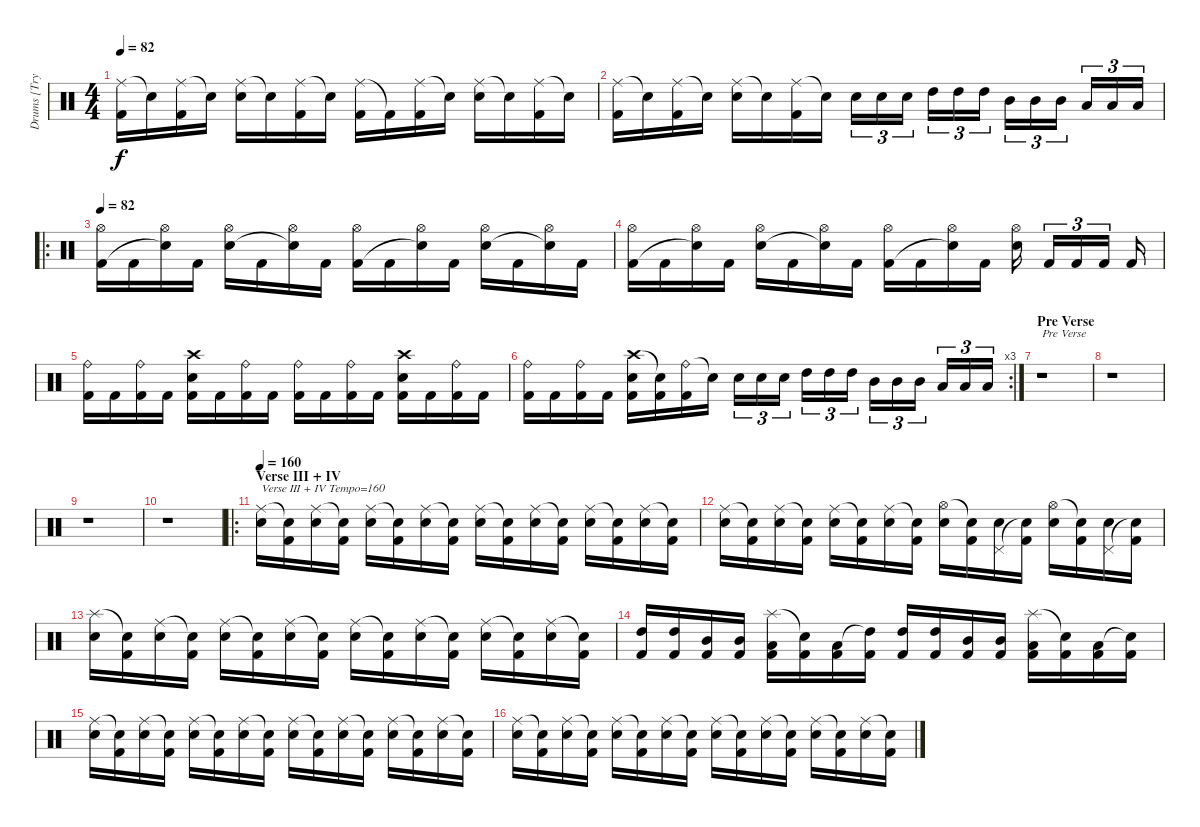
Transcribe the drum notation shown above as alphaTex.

\track ("Drums [Trym]" "Drums [Try") {instrument percussion}
\staff {score}
\articulation defaults
\ts (4 4)
\tempo 82
\clef neutral
\ks c
("Ride (middle)" "Kick (hit) 2").16{dy f} "Snare (hit)"{t}.16 ("Ride (middle)" "Kick (hit) 2").16 "Snare (hit)"{t}.16 ("Ride (middle)" "Electric Snare (hit)").16 "Snare (hit)"{t}.16 ("Ride (middle)" "Kick (hit) 2").16 "Snare (hit)"{t}.16 ("Ride (middle)" "Kick (hit) 2").16 "Kick (hit) 2"{t}.16 ("Ride (middle)" "Kick (hit) 2").16 "Snare (hit)"{t}.16 ("Ride (middle)" "Electric Snare (hit)").16 "Snare (hit)"{t}.16 ("Ride (middle)" "Kick (hit) 2").16 "Snare (hit)"{t}.16 |
("Ride (middle)" "Kick (hit) 2").16 "Snare (hit)"{t}.16 ("Ride (middle)" "Kick (hit) 2").16 "Snare (hit)"{t}.16 ("Ride (middle)" "Electric Snare (hit)").16 "Snare (hit)"{t}.16 ("Ride (middle)" "Kick (hit) 2").16 "Snare (hit)"{t}.16 "Electric Snare (hit)".16{tu (3 2)} "Electric Snare (hit)".16{tu (3 2)} "Electric Snare (hit)".16{tu (3 2)} "High Tom (hit)".16{tu (3 2)} "High Tom (hit)".16{tu (3 2)} "High Tom (hit)".16{tu (3 2)} "Mid Tom (hit)".16{tu (3 2)} "Mid Tom (hit)".16{tu (3 2)} "Mid Tom (hit)".16{tu (3 2)} "Low Tom (hit)".16{tu (3 2)} "Low Tom (hit)".16{tu (3 2)} "Low Tom (hit)".16{tu (3 2)} |
\ro
\tempo 82
("Hi-Hat (open)" "Kick (hit) 2").16 "Kick (hit) 2".16 ("Hi-Hat (open)" "Snare (hit)"{t}).16 "Kick (hit) 2".16 ("Hi-Hat (open)" "Electric Snare (hit)").16 "Kick (hit) 2".16 ("Hi-Hat (open)" "Snare (hit)"{t}).16 "Kick (hit) 2".16 ("Hi-Hat (open)" "Kick (hit) 2").16 "Kick (hit) 2".16 ("Hi-Hat (open)" "Snare (hit)"{t}).16 "Kick (hit) 2".16 ("Hi-Hat (open)" "Electric Snare (hit)").16 "Kick (hit) 2".16 ("Hi-Hat (open)" "Snare (hit)"{t}).16 "Kick (hit) 2".16 |
("Hi-Hat (open)" "Kick (hit) 2").16 "Kick (hit) 2".16 ("Hi-Hat (open)" "Snare (hit)"{t}).16 "Kick (hit) 2".16 ("Hi-Hat (open)" "Electric Snare (hit)").16 "Kick (hit) 2".16 ("Hi-Hat (open)" "Snare (hit)"{t}).16 "Kick (hit) 2".16 ("Hi-Hat (open)" "Kick (hit) 2").16 "Kick (hit) 2".16 ("Hi-Hat (open)" "Snare (hit)"{t}).16 "Kick (hit) 2".16 ("Hi-Hat (open)" "Electric Snare (hit)").16 "Kick (hit) 2".16{tu (3 2)} "Kick (hit) 2".16{tu (3 2)} "Kick (hit) 2".16{tu (3 2)} "Kick (hit) 2".16 |
("Ride (bell)" "Kick (hit) 2").16 "Kick (hit) 2".16 ("Ride (bell)" "Kick (hit) 2").16 "Kick (hit) 2".16 ("Crash high (hit)" "Electric Snare (hit)" "Kick (hit) 2").16 "Kick (hit) 2".16 ("Ride (bell)" "Kick (hit) 2").16 "Kick (hit) 2".16 ("Ride (bell)" "Kick (hit) 2").16 "Kick (hit) 2".16 ("Ride (bell)" "Kick (hit) 2").16 "Kick (hit) 2".16 ("Crash high (hit)" "Electric Snare (hit)" "Kick (hit) 2").16 "Kick (hit) 2".16 ("Ride (bell)" "Kick (hit) 2").16 "Kick (hit) 2".16 |
\rc 3
("Ride (bell)" "Kick (hit) 2").16 "Kick (hit) 2".16 ("Ride (bell)" "Kick (hit) 2").16 "Kick (hit) 2".16 ("Crash high (hit)" "Electric Snare (hit)" "Kick (hit) 2").16 ("Snare (hit)"{t} "Kick (hit) 2").16 ("Ride (bell)" "Kick (hit) 2").16 "Snare (hit)"{t}.16 "Electric Snare (hit)".16{tu (3 2)} "Electric Snare (hit)".16{tu (3 2)} "Electric Snare (hit)".16{tu (3 2)} "High Tom (hit)".16{tu (3 2)} "High Tom (hit)".16{tu (3 2)} "High Tom (hit)".16{tu (3 2)} "Mid Tom (hit)".16{tu (3 2)} "Mid Tom (hit)".16{tu (3 2)} "Mid Tom (hit)".16{tu (3 2)} "Low Tom (hit)".16{tu (3 2)} "Low Tom (hit)".16{tu (3 2)} "Low Tom (hit)".16{tu (3 2)} |
\section ("" "Pre Verse")
r.1{txt "Pre Verse"} |
r.1 |
r.1 |
r.1 |
\ro
\section ("" "Verse III + IV")
\tempo 160
("Ride (middle)" "Electric Snare (hit)").16{txt "Verse III + IV Tempo=160"} ("Snare (hit)"{t} "Kick (hit) 2").16 ("Ride (middle)" "Electric Snare (hit)").16 ("Snare (hit)"{t} "Kick (hit) 2").16 ("Ride (middle)" "Electric Snare (hit)").16 ("Snare (hit)"{t} "Kick (hit) 2").16 ("Ride (middle)" "Electric Snare (hit)").16 ("Snare (hit)"{t} "Kick (hit) 2").16 ("Ride (middle)" "Electric Snare (hit)").16 ("Snare (hit)"{t} "Kick (hit) 2").16 ("Ride (middle)" "Electric Snare (hit)").16 ("Snare (hit)"{t} "Kick (hit) 2").16 ("Ride (middle)" "Electric Snare (hit)").16 ("Snare (hit)"{t} "Kick (hit) 2").16 ("Ride (middle)" "Electric Snare (hit)").16 ("Snare (hit)"{t} "Kick (hit) 2").16 |
("Ride (middle)" "Electric Snare (hit)").16 ("Snare (hit)"{t} "Kick (hit) 2").16 ("Ride (middle)" "Electric Snare (hit)").16 ("Snare (hit)"{t} "Kick (hit) 2").16 ("Ride (middle)" "Electric Snare (hit)").16 ("Snare (hit)"{t} "Kick (hit) 2").16 ("Ride (middle)" "Electric Snare (hit)").16 ("Snare (hit)"{t} "Kick (hit) 2").16 ("Hi-Hat (open)" "Electric Snare (hit)").16 ("Snare (hit)"{t} "Kick (hit) 2").16 ("Pedal Hi-Hat (hit)" "Electric Snare (hit)").16 ("Snare (hit)"{t} "Kick (hit) 2").16 ("Hi-Hat (open)" "Electric Snare (hit)").16 ("Snare (hit)"{t} "Kick (hit) 2").16 ("Pedal Hi-Hat (hit)" "Electric Snare (hit)").16 ("Snare (hit)"{t} "Kick (hit) 2").16 |
("Splash (hit)" "Electric Snare (hit)").16 ("Snare (hit)"{t} "Kick (hit) 2").16 ("Ride (middle)" "Electric Snare (hit)").16 ("Snare (hit)"{t} "Kick (hit) 2").16 ("Ride (middle)" "Electric Snare (hit)").16 ("Snare (hit)"{t} "Kick (hit) 2").16 ("Ride (middle)" "Electric Snare (hit)").16 ("Snare (hit)"{t} "Kick (hit) 2").16 ("Ride (middle)" "Electric Snare (hit)").16 ("Snare (hit)"{t} "Kick (hit) 2").16 ("Ride (middle)" "Electric Snare (hit)").16 ("Snare (hit)"{t} "Kick (hit) 2").16 ("Ride (middle)" "Electric Snare (hit)").16 ("Snare (hit)"{t} "Kick (hit) 2").16 ("Ride (middle)" "Electric Snare (hit)").16 ("Snare (hit)"{t} "Kick (hit) 2").16 |
("High Tom (hit)" "Kick (hit) 2").16 ("High Tom (hit)" "Kick (hit) 2").16 ("Mid Tom (hit)" "Kick (hit) 2").16 ("Mid Tom (hit)" "Kick (hit) 2").16 ("Splash (hit)" "Low Tom (hit)" "Kick (hit) 2").16 ("Snare (hit)"{t} "Kick (hit) 2").16 ("Low Tom (hit)" "Kick (hit) 2").16 ("High Tom (hit)"{t} "Kick (hit) 2").16 ("High Tom (hit)" "Kick (hit) 2").16 ("High Tom (hit)" "Kick (hit) 2").16 ("Mid Tom (hit)" "Kick (hit) 2").16 ("Mid Tom (hit)" "Kick (hit) 2").16 ("Splash (hit)" "Low Tom (hit)" "Kick (hit) 2").16 ("Snare (hit)"{t} "Kick (hit) 2").16 ("Low Tom (hit)" "Kick (hit) 2").16 ("Snare (hit)"{t} "Kick (hit) 2").16 |
("Ride (middle)" "Electric Snare (hit)").16 ("Snare (hit)"{t} "Kick (hit) 2").16 ("Ride (middle)" "Electric Snare (hit)").16 ("Snare (hit)"{t} "Kick (hit) 2").16 ("Ride (middle)" "Electric Snare (hit)").16 ("Snare (hit)"{t} "Kick (hit) 2").16 ("Ride (middle)" "Electric Snare (hit)").16 ("Snare (hit)"{t} "Kick (hit) 2").16 ("Ride (middle)" "Electric Snare (hit)").16 ("Snare (hit)"{t} "Kick (hit) 2").16 ("Ride (middle)" "Electric Snare (hit)").16 ("Snare (hit)"{t} "Kick (hit) 2").16 ("Ride (middle)" "Electric Snare (hit)").16 ("Snare (hit)"{t} "Kick (hit) 2").16 ("Ride (middle)" "Electric Snare (hit)").16 ("Snare (hit)"{t} "Kick (hit) 2").16 |
("Ride (middle)" "Electric Snare (hit)").16 ("Snare (hit)"{t} "Kick (hit) 2").16 ("Ride (middle)" "Electric Snare (hit)").16 ("Snare (hit)"{t} "Kick (hit) 2").16 ("Ride (middle)" "Electric Snare (hit)").16 ("Snare (hit)"{t} "Kick (hit) 2").16 ("Ride (middle)" "Electric Snare (hit)").16 ("Snare (hit)"{t} "Kick (hit) 2").16 ("Ride (middle)" "Electric Snare (hit)").16 ("Snare (hit)"{t} "Kick (hit) 2").16 ("Ride (middle)" "Electric Snare (hit)").16 ("Snare (hit)"{t} "Kick (hit) 2").16 ("Ride (middle)" "Electric Snare (hit)").16 ("Snare (hit)"{t} "Kick (hit) 2").16 ("Ride (middle)" "Electric Snare (hit)").16 ("Snare (hit)"{t} "Kick (hit) 2").16
